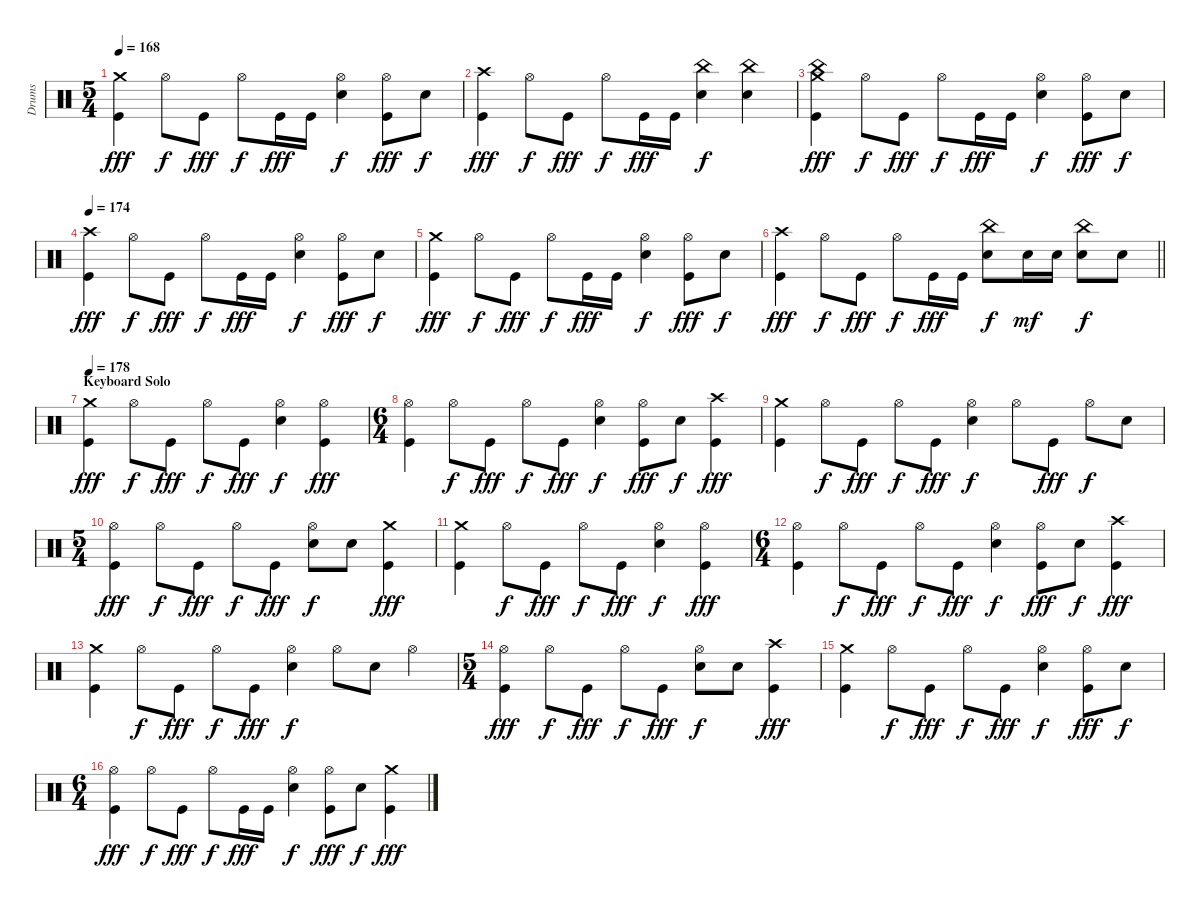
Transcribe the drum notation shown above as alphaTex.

\track ("Drums" "Drums") {instrument percussion}
\staff {score}
\articulation defaults
\ts (5 4)
\tempo 168
\clef neutral
\ks c
("Crash medium (hit)" "Kick (hit)").4{dy fff} "Hi-Hat (open)".8{dy f} "Kick (hit)".8{dy fff} "Hi-Hat (open)".8{dy f} "Kick (hit)".16{dy fff} "Kick (hit)".16 ("Hi-Hat (open)" "Electric Snare (hit)").4{dy f} ("Hi-Hat (open)" "Kick (hit)").8{dy fff} "Electric Snare (hit)".8{dy f} |
("Crash high (hit)" "Kick (hit)").4{dy fff} "Hi-Hat (open)".8{dy f} "Kick (hit)".8{dy fff} "Hi-Hat (open)".8{dy f} "Kick (hit)".16{dy fff} "Kick (hit)".16 ("China (hit)" "Electric Snare (hit)").4{dy f} ("China (hit)" "Electric Snare (hit)").4 |
("Crash medium (hit)" "China (hit)" "Kick (hit)").4{dy fff} "Hi-Hat (open)".8{dy f} "Kick (hit)".8{dy fff} "Hi-Hat (open)".8{dy f} "Kick (hit)".16{dy fff} "Kick (hit)".16 ("Hi-Hat (open)" "Electric Snare (hit)").4{dy f} ("Hi-Hat (open)" "Kick (hit)").8{dy fff} "Electric Snare (hit)".8{dy f} |
\tempo 174
("Crash high (hit)" "Kick (hit)").4{dy fff} "Hi-Hat (open)".8{dy f} "Kick (hit)".8{dy fff} "Hi-Hat (open)".8{dy f} "Kick (hit)".16{dy fff} "Kick (hit)".16 ("Hi-Hat (open)" "Electric Snare (hit)").4{dy f} ("Hi-Hat (open)" "Kick (hit)").8{dy fff} "Electric Snare (hit)".8{dy f} |
("Crash medium (hit)" "Kick (hit)").4{dy fff} "Hi-Hat (open)".8{dy f} "Kick (hit)".8{dy fff} "Hi-Hat (open)".8{dy f} "Kick (hit)".16{dy fff} "Kick (hit)".16 ("Hi-Hat (open)" "Electric Snare (hit)").4{dy f} ("Hi-Hat (open)" "Kick (hit)").8{dy fff} "Electric Snare (hit)".8{dy f} |
\barLineRight lightlight
("Crash high (hit)" "Kick (hit)").4{dy fff} "Hi-Hat (open)".8{dy f} "Kick (hit)".8{dy fff} "Hi-Hat (open)".8{dy f} "Kick (hit)".16{dy fff} "Kick (hit)".16 ("China (hit)" "Electric Snare (hit)").8{dy f} "Electric Snare (hit)".16{dy mf} "Electric Snare (hit)".16 ("China (hit)" "Electric Snare (hit)").8{dy f} "Electric Snare (hit)".8 |
\section ("" "Keyboard Solo")
\tempo 178
("Crash medium (hit)" "Kick (hit)").4{dy fff} "Hi-Hat (open)".8{dy f} "Kick (hit)".8{dy fff} "Hi-Hat (open)".8{dy f} "Kick (hit)".8{dy fff} ("Hi-Hat (open)" "Electric Snare (hit)").4{dy f} ("Hi-Hat (open)" "Kick (hit)").4{dy fff} |
\ts (6 4)
("Hi-Hat (open)" "Kick (hit)").4 "Hi-Hat (open)".8{dy f} "Kick (hit)".8{dy fff} "Hi-Hat (open)".8{dy f} "Kick (hit)".8{dy fff} ("Hi-Hat (open)" "Electric Snare (hit)").4{dy f} ("Hi-Hat (open)" "Kick (hit)").8{dy fff} "Electric Snare (hit)".8{dy f} ("Crash high (hit)" "Kick (hit)").4{dy fff} |
("Crash medium (hit)" "Kick (hit)").4 "Hi-Hat (open)".8{dy f} "Kick (hit)".8{dy fff} "Hi-Hat (open)".8{dy f} "Kick (hit)".8{dy fff} ("Hi-Hat (open)" "Electric Snare (hit)").4{dy f} "Hi-Hat (open)".8 "Kick (hit)".8{dy fff} "Hi-Hat (open)".8{dy f} "Electric Snare (hit)".8 |
\ts (5 4)
("Hi-Hat (open)" "Kick (hit)").4{dy fff} "Hi-Hat (open)".8{dy f} "Kick (hit)".8{dy fff} "Hi-Hat (open)".8{dy f} "Kick (hit)".8{dy fff} ("Hi-Hat (open)" "Electric Snare (hit)").8{dy f} "Electric Snare (hit)".8 ("Crash medium (hit)" "Kick (hit)").4{dy fff} |
("Crash medium (hit)" "Kick (hit)").4 "Hi-Hat (open)".8{dy f} "Kick (hit)".8{dy fff} "Hi-Hat (open)".8{dy f} "Kick (hit)".8{dy fff} ("Hi-Hat (open)" "Electric Snare (hit)").4{dy f} ("Hi-Hat (open)" "Kick (hit)").4{dy fff} |
\ts (6 4)
("Hi-Hat (open)" "Kick (hit)").4 "Hi-Hat (open)".8{dy f} "Kick (hit)".8{dy fff} "Hi-Hat (open)".8{dy f} "Kick (hit)".8{dy fff} ("Hi-Hat (open)" "Electric Snare (hit)").4{dy f} ("Hi-Hat (open)" "Kick (hit)").8{dy fff} "Electric Snare (hit)".8{dy f} ("Crash high (hit)" "Kick (hit)").4{dy fff} |
("Crash medium (hit)" "Kick (hit)").4 "Hi-Hat (open)".8{dy f} "Kick (hit)".8{dy fff} "Hi-Hat (open)".8{dy f} "Kick (hit)".8{dy fff} ("Hi-Hat (open)" "Electric Snare (hit)").4{dy f} "Hi-Hat (open)".8 "Electric Snare (hit)".8 "Hi-Hat (open)".4 |
\ts (5 4)
("Hi-Hat (open)" "Kick (hit)").4{dy fff} "Hi-Hat (open)".8{dy f} "Kick (hit)".8{dy fff} "Hi-Hat (open)".8{dy f} "Kick (hit)".8{dy fff} ("Hi-Hat (open)" "Electric Snare (hit)").8{dy f} "Electric Snare (hit)".8 ("Crash high (hit)" "Kick (hit)").4{dy fff} |
("Crash medium (hit)" "Kick (hit)").4 "Hi-Hat (open)".8{dy f} "Kick (hit)".8{dy fff} "Hi-Hat (open)".8{dy f} "Kick (hit)".8{dy fff} ("Hi-Hat (open)" "Electric Snare (hit)").4{dy f} ("Hi-Hat (open)" "Kick (hit)").8{dy fff} "Electric Snare (hit)".8{dy f} |
\ts (6 4)
("Hi-Hat (open)" "Kick (hit)").4{dy fff} "Hi-Hat (open)".8{dy f} "Kick (hit)".8{dy fff} "Hi-Hat (open)".8{dy f} "Kick (hit)".16{dy fff} "Kick (hit)".16 ("Hi-Hat (open)" "Electric Snare (hit)").4{dy f} ("Hi-Hat (open)" "Kick (hit)").8{dy fff} "Electric Snare (hit)".8{dy f} ("Crash medium (hit)" "Kick (hit)").4{dy fff}
